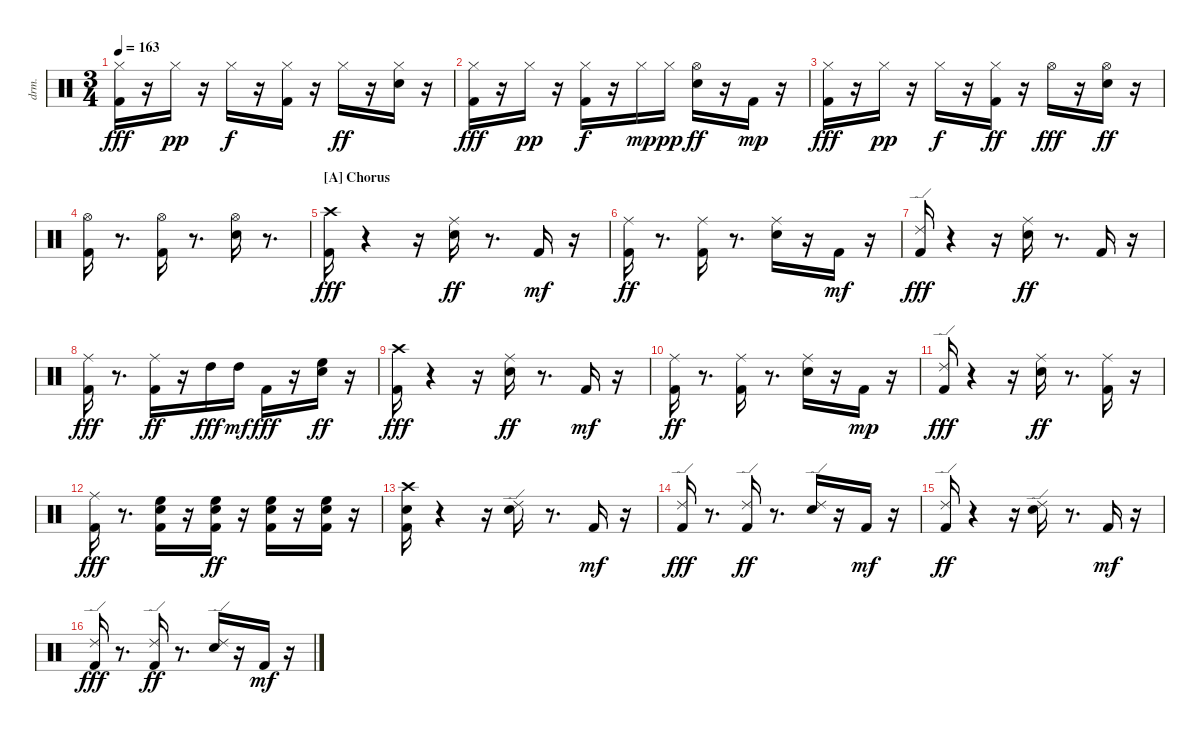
\bracketExtendMode nobrackets
\track ("EZdrummer 3" "drm.") {instrument percussion}
\staff {score}
\articulation defaults
\ts (3 4)
\tempo 163
\clef neutral
\ks aminor
("Kick (hit) 2" "Hi-Hat (closed)"{acc #}).16{dy fff} r.16 "Hi-Hat (closed)"{acc #}.16{dy pp} r.16 "Hi-Hat (closed)"{acc #}.16{dy f} r.16 ("Kick (hit) 2" "Hi-Hat (closed)"{acc #}).16 r.16 "Hi-Hat (closed)"{acc #}.16{dy ff} r.16 ("Snare (hit) 2" "Hi-Hat (closed)"{acc #}).16 r.16 |
("Kick (hit) 2" "Hi-Hat (closed)"{acc #}).16{dy fff} r.16 "Hi-Hat (closed)"{acc #}.16{dy pp} r.16 ("Kick (hit) 2" "Hi-Hat (closed)"{acc #}).16{dy f} r.16 "Hi-Hat (closed)"{acc #}.16{dy mp} "Hi-Hat (closed)"{acc #}.16{dy pp} ("Snare (hit) 2" "Hi-Hat (open)"{acc #}).16{dy ff} r.16 "Kick (hit) 2".16{dy mp} r.16 |
("Kick (hit) 2" "Hi-Hat (closed)"{acc #}).16{dy fff} r.16 "Hi-Hat (closed)"{acc #}.16{dy pp} r.16 "Hi-Hat (closed)"{acc #}.16{dy f} r.16 ("Kick (hit) 2" "Hi-Hat (closed)"{acc #}).16{dy ff} r.16 "Hi-Hat (open)"{acc #}.16{dy fff} r.16 ("Snare (hit) 2" "Hi-Hat (open)"{acc #}).16{dy ff} r.16 |
("Kick (hit) 2" "Hi-Hat (open)"{acc #}).16 r.8{d} ("Kick (hit) 2" "Hi-Hat (open)"{acc #}).16 r.8{d} ("Snare (hit) 2" "Hi-Hat (open)"{acc #}).16 r.8{d} |
\section ("A" "Chorus")
("Kick (hit) 2" "Crash high (hit)"{acc #}).16{dy fff} r.4 r.16 ("Snare (hit) 2" "Ride (middle)"{acc #}).16{dy ff} r.8{d} "Kick (hit) 2".16{dy mf} r.16 |
("Kick (hit) 2" "Ride (middle)"{acc #}).16{dy ff} r.8{d} ("Kick (hit) 2" "Ride (middle)"{acc #}).16 r.8{d} ("Snare (hit) 2" "Ride (middle)"{acc #}).16 r.16 "Kick (hit) 2".16{dy mf} r.16 |
("Kick (hit) 2" "Ride (edge) 2").16{dy fff} r.4 r.16 ("Snare (hit) 2" "Ride (middle)"{acc #}).16{dy ff} r.8{d} "Kick (hit) 2".16 r.16 |
("Kick (hit) 2" "Ride (middle)"{acc #}).16{dy fff} r.8{d} ("Kick (hit) 2" "Ride (middle)"{acc #}).16{dy ff} r.16 "High Tom (hit)".16{dy fff} "High Tom (hit)".16{dy mf} "Kick (hit) 2".16{dy fff} r.16 ("Snare (hit) 2" "High Floor Tom (hit)").16{dy ff} r.16 |
("Kick (hit) 2" "Crash high (hit)"{acc #}).16{dy fff} r.4 r.16 ("Snare (hit) 2" "Ride (middle)"{acc #}).16{dy ff} r.8{d} "Kick (hit) 2".16{dy mf} r.16 |
("Kick (hit) 2" "Ride (middle)"{acc #}).16{dy ff} r.8{d} ("Kick (hit) 2" "Ride (middle)"{acc #}).16 r.8{d} ("Snare (hit) 2" "Ride (middle)"{acc #}).16 r.16 "Kick (hit) 2".16{dy mp} r.16 |
("Kick (hit) 2" "Ride (edge) 2").16{dy fff} r.4 r.16 ("Snare (hit) 2" "Ride (middle)"{acc #}).16{dy ff} r.8{d} ("Kick (hit) 2" "Ride (middle)"{acc #}).16 r.16 |
("Kick (hit) 2" "Ride (middle)"{acc #}).16{dy fff} r.8{d} ("Kick (hit) 2" "Snare (hit) 2" "High Floor Tom (hit)").16 r.16 ("Kick (hit) 2" "Snare (hit) 2" "High Floor Tom (hit)").16{dy ff} r.16 ("Kick (hit) 2" "Snare (hit) 2" "High Floor Tom (hit)").16 r.16 ("Kick (hit) 2" "Snare (hit) 2" "High Floor Tom (hit)").16 r.16 |
("Kick (hit) 2" "Snare (hit) 2" "Crash high (hit)"{acc #}).16 r.4 r.16 ("Snare (hit) 2" "Ride (edge) 2").16 r.8{d} "Kick (hit) 2".16{dy mf} r.16 |
("Kick (hit) 2" "Ride (edge) 2").16{dy fff} r.8{d} ("Kick (hit) 2" "Ride (edge) 2").16{dy ff} r.8{d} ("Snare (hit) 2" "Ride (edge) 2").16 r.16 "Kick (hit) 2".16{dy mf} r.16 |
("Kick (hit) 2" "Ride (edge) 2").16{dy ff} r.4 r.16 ("Snare (hit) 2" "Ride (edge) 2").16 r.8{d} "Kick (hit) 2".16{dy mf} r.16 |
("Kick (hit) 2" "Ride (edge) 2").16{dy fff} r.8{d} ("Kick (hit) 2" "Ride (edge) 2").16{dy ff} r.8{d} ("Snare (hit) 2" "Ride (edge) 2").16 r.16 "Kick (hit) 2".16{dy mf} r.16
